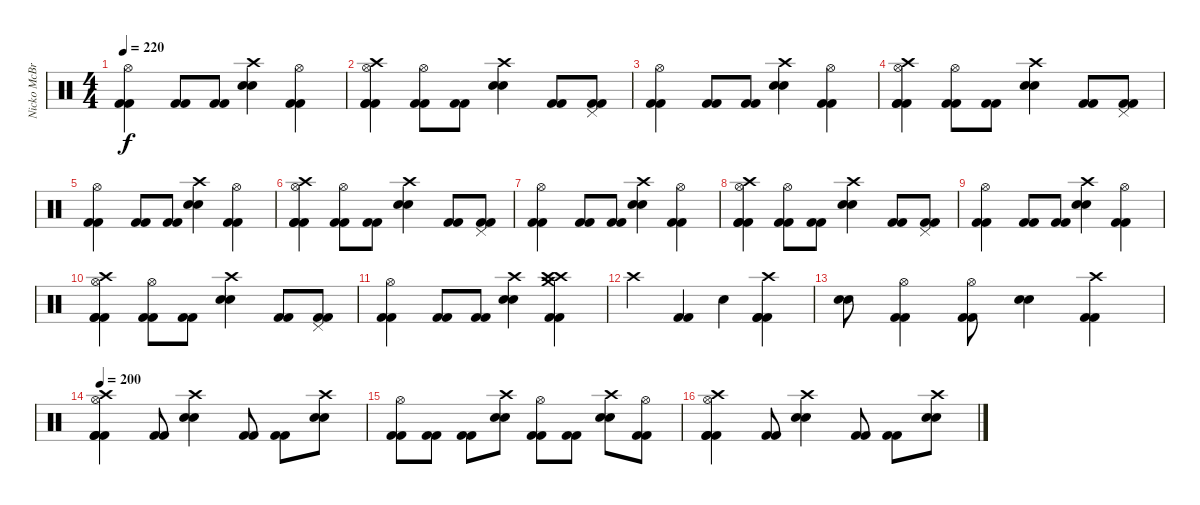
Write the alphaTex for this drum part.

\track ("Nicko McBrain" "Nicko McBr") {instrument percussion}
\staff {score}
\articulation defaults
\ts (4 4)
\tempo 220
\clef neutral
\ks c
("Hi-Hat (open)" "Kick (hit) 2" "Kick (hit) 2").4{dy f} ("Kick (hit) 2" "Kick (hit) 2").8 ("Kick (hit) 2" "Kick (hit) 2").8 ("Crash high (hit)" "Snare (hit) 2" "Snare (hit) 2").4 ("Hi-Hat (open)" "Kick (hit) 2" "Kick (hit) 2").4 |
("Crash high (hit)" "Hi-Hat (open)" "Kick (hit) 2" "Kick (hit) 2" "Kick (hit) 2").4 ("Hi-Hat (open)" "Kick (hit) 2" "Kick (hit) 2").8 ("Kick (hit) 2" "Kick (hit) 2").8 ("Crash high (hit)" "Snare (hit) 2" "Snare (hit) 2").4 ("Kick (hit) 2" "Kick (hit) 2").8 ("Pedal Hi-Hat (hit)" "Kick (hit) 2" "Kick (hit) 2").8 |
("Hi-Hat (open)" "Kick (hit) 2" "Kick (hit) 2").4 ("Kick (hit) 2" "Kick (hit) 2").8 ("Kick (hit) 2" "Kick (hit) 2").8 ("Crash high (hit)" "Snare (hit) 2" "Snare (hit) 2").4 ("Hi-Hat (open)" "Kick (hit) 2" "Kick (hit) 2").4 |
("Crash high (hit)" "Hi-Hat (open)" "Kick (hit) 2" "Kick (hit) 2" "Kick (hit) 2").4 ("Hi-Hat (open)" "Kick (hit) 2" "Kick (hit) 2").8 ("Kick (hit) 2" "Kick (hit) 2").8 ("Crash high (hit)" "Snare (hit) 2" "Snare (hit) 2").4 ("Kick (hit) 2" "Kick (hit) 2").8 ("Pedal Hi-Hat (hit)" "Kick (hit) 2" "Kick (hit) 2").8 |
("Hi-Hat (open)" "Kick (hit) 2" "Kick (hit) 2").4 ("Kick (hit) 2" "Kick (hit) 2").8 ("Kick (hit) 2" "Kick (hit) 2").8 ("Crash high (hit)" "Snare (hit) 2" "Snare (hit) 2").4 ("Hi-Hat (open)" "Kick (hit) 2" "Kick (hit) 2").4 |
("Crash high (hit)" "Hi-Hat (open)" "Kick (hit) 2" "Kick (hit) 2" "Kick (hit) 2").4 ("Hi-Hat (open)" "Kick (hit) 2" "Kick (hit) 2").8 ("Kick (hit) 2" "Kick (hit) 2").8 ("Crash high (hit)" "Snare (hit) 2" "Snare (hit) 2").4 ("Kick (hit) 2" "Kick (hit) 2").8 ("Pedal Hi-Hat (hit)" "Kick (hit) 2" "Kick (hit) 2").8 |
("Hi-Hat (open)" "Kick (hit) 2" "Kick (hit) 2").4 ("Kick (hit) 2" "Kick (hit) 2").8 ("Kick (hit) 2" "Kick (hit) 2").8 ("Crash high (hit)" "Snare (hit) 2" "Snare (hit) 2").4 ("Hi-Hat (open)" "Kick (hit) 2" "Kick (hit) 2").4 |
("Crash high (hit)" "Hi-Hat (open)" "Kick (hit) 2" "Kick (hit) 2" "Kick (hit) 2").4 ("Hi-Hat (open)" "Kick (hit) 2" "Kick (hit) 2").8 ("Kick (hit) 2" "Kick (hit) 2").8 ("Crash high (hit)" "Snare (hit) 2" "Snare (hit) 2").4 ("Kick (hit) 2" "Kick (hit) 2").8 ("Pedal Hi-Hat (hit)" "Kick (hit) 2" "Kick (hit) 2").8 |
("Hi-Hat (open)" "Kick (hit) 2" "Kick (hit) 2").4 ("Kick (hit) 2" "Kick (hit) 2").8 ("Kick (hit) 2" "Kick (hit) 2").8 ("Crash high (hit)" "Snare (hit) 2" "Snare (hit) 2").4 ("Hi-Hat (open)" "Kick (hit) 2" "Kick (hit) 2").4 |
("Crash high (hit)" "Hi-Hat (open)" "Kick (hit) 2" "Kick (hit) 2" "Kick (hit) 2").4 ("Hi-Hat (open)" "Kick (hit) 2" "Kick (hit) 2").8 ("Kick (hit) 2" "Kick (hit) 2").8 ("Crash high (hit)" "Snare (hit) 2" "Snare (hit) 2").4 ("Kick (hit) 2" "Kick (hit) 2").8 ("Pedal Hi-Hat (hit)" "Kick (hit) 2" "Kick (hit) 2").8 |
("Hi-Hat (open)" "Kick (hit) 2" "Kick (hit) 2").4 ("Kick (hit) 2" "Kick (hit) 2").8 ("Kick (hit) 2" "Kick (hit) 2").8 ("Crash high (hit)" "Snare (hit) 2" "Snare (hit) 2").4 ("Crash high (hit)" "Crash medium (hit)" "Crash high (hit)" "Kick (hit) 2" "Kick (hit) 2").4 |
"Crash high (hit)".4 ("Kick (hit) 2" "Kick (hit) 2").4 "Snare (hit) 2".4 ("Crash high (hit)" "Kick (hit) 2" "Kick (hit) 2" "Kick (hit) 2").4 |
("Snare (hit) 2" "Snare (hit) 2").8 ("Hi-Hat (open)" "Kick (hit) 2" "Kick (hit) 2").4 ("Hi-Hat (open)" "Kick (hit) 2" "Kick (hit) 2").8 ("Snare (hit) 2" "Snare (hit) 2").4 ("Crash high (hit)" "Kick (hit) 2" "Kick (hit) 2").4 |
\tempo 200
("Crash high (hit)" "Hi-Hat (open)" "Kick (hit) 2" "Kick (hit) 2" "Kick (hit) 2").4 ("Kick (hit) 2" "Kick (hit) 2").8 ("Crash high (hit)" "Snare (hit) 2" "Snare (hit) 2").4 ("Kick (hit) 2" "Kick (hit) 2").8 ("Kick (hit) 2" "Kick (hit) 2").8 ("Crash high (hit)" "Snare (hit) 2" "Snare (hit) 2").8 |
("Hi-Hat (open)" "Kick (hit) 2" "Kick (hit) 2").8 ("Kick (hit) 2" "Kick (hit) 2").8 ("Kick (hit) 2" "Kick (hit) 2").8 ("Crash high (hit)" "Snare (hit) 2" "Snare (hit) 2").8 ("Hi-Hat (open)" "Kick (hit) 2" "Kick (hit) 2").8 ("Kick (hit) 2" "Kick (hit) 2").8 ("Crash high (hit)" "Snare (hit) 2" "Snare (hit) 2").8 ("Hi-Hat (open)" "Kick (hit) 2" "Kick (hit) 2").8 |
("Crash high (hit)" "Hi-Hat (open)" "Kick (hit) 2" "Kick (hit) 2" "Kick (hit) 2").4 ("Kick (hit) 2" "Kick (hit) 2").8 ("Crash high (hit)" "Snare (hit) 2" "Snare (hit) 2").4 ("Kick (hit) 2" "Kick (hit) 2").8 ("Kick (hit) 2" "Kick (hit) 2").8 ("Crash high (hit)" "Snare (hit) 2" "Snare (hit) 2").8
